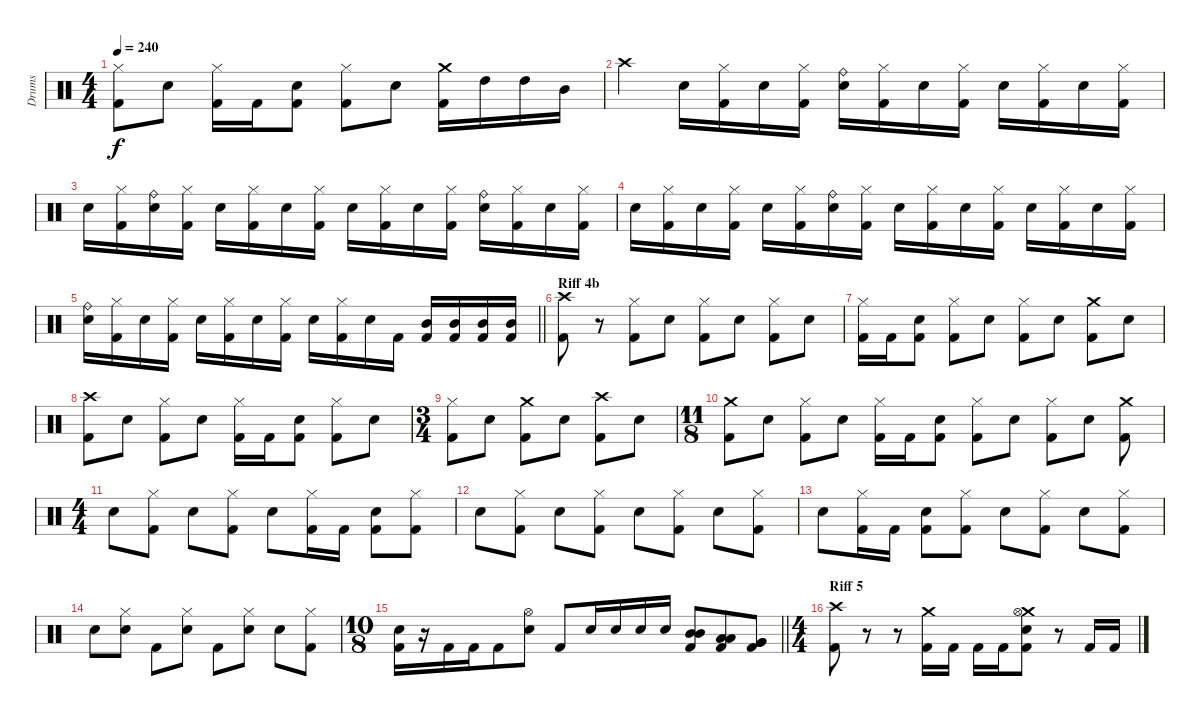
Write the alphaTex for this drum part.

\track ("Drums" "Drums") {instrument percussion}
\staff {score}
\articulation defaults
\ts (4 4)
\tempo 240
\clef neutral
\ks c
("Hi-Hat (closed)" "Kick (hit) 2").8{dy f} "Electric Snare (hit)".8 ("Hi-Hat (closed)" "Kick (hit) 2").16 "Kick (hit) 2".16 ("Electric Snare (hit)" "Kick (hit) 2").8 ("Hi-Hat (closed)" "Kick (hit) 2").8 "Electric Snare (hit)".8 ("Crash medium (hit)" "Kick (hit) 2").16 "High Tom (hit)".16 "High Tom (hit)".16 "Mid Tom (hit)".16 |
"Crash high (hit)".4 "Electric Snare (hit)".16 ("Hi-Hat (closed)" "Kick (hit) 2").16 "Electric Snare (hit)".16 ("Hi-Hat (closed)" "Kick (hit) 2").16 ("Ride (bell)" "Electric Snare (hit)").16 ("Hi-Hat (closed)" "Kick (hit) 2").16 "Electric Snare (hit)".16 ("Hi-Hat (closed)" "Kick (hit) 2").16 "Electric Snare (hit)".16 ("Hi-Hat (closed)" "Kick (hit) 2").16 "Electric Snare (hit)".16 ("Hi-Hat (closed)" "Kick (hit) 2").16 |
"Electric Snare (hit)".16 ("Hi-Hat (closed)" "Kick (hit) 2").16 ("Ride (bell)" "Electric Snare (hit)").16 ("Hi-Hat (closed)" "Kick (hit) 2").16 "Electric Snare (hit)".16 ("Hi-Hat (closed)" "Kick (hit) 2").16 "Electric Snare (hit)".16 ("Hi-Hat (closed)" "Kick (hit) 2").16 "Electric Snare (hit)".16 ("Hi-Hat (closed)" "Kick (hit) 2").16 "Electric Snare (hit)".16 ("Hi-Hat (closed)" "Kick (hit) 2").16 ("Ride (bell)" "Electric Snare (hit)").16 ("Hi-Hat (closed)" "Kick (hit) 2").16 "Electric Snare (hit)".16 ("Hi-Hat (closed)" "Kick (hit) 2").16 |
"Electric Snare (hit)".16 ("Hi-Hat (closed)" "Kick (hit) 2").16 "Electric Snare (hit)".16 ("Hi-Hat (closed)" "Kick (hit) 2").16 "Electric Snare (hit)".16 ("Hi-Hat (closed)" "Kick (hit) 2").16 ("Ride (bell)" "Electric Snare (hit)").16 ("Hi-Hat (closed)" "Kick (hit) 2").16 "Electric Snare (hit)".16 ("Hi-Hat (closed)" "Kick (hit) 2").16 "Electric Snare (hit)".16 ("Hi-Hat (closed)" "Kick (hit) 2").16 "Electric Snare (hit)".16 ("Hi-Hat (closed)" "Kick (hit) 2").16 "Electric Snare (hit)".16 ("Hi-Hat (closed)" "Kick (hit) 2").16 |
\barLineRight lightlight
("Ride (bell)" "Electric Snare (hit)").16 ("Hi-Hat (closed)" "Kick (hit) 2").16 "Electric Snare (hit)".16 ("Hi-Hat (closed)" "Kick (hit) 2").16 "Electric Snare (hit)".16 ("Hi-Hat (closed)" "Kick (hit) 2").16 "Electric Snare (hit)".16 ("Hi-Hat (closed)" "Kick (hit) 2").16 "Electric Snare (hit)".16 ("Hi-Hat (closed)" "Kick (hit) 2").16 "Electric Snare (hit)".16 "Kick (hit) 2".16 ("Mid Tom (hit)" "Kick (hit) 2").16 ("Mid Tom (hit)" "Kick (hit) 2").16 ("Mid Tom (hit)" "Kick (hit) 2").16 ("Mid Tom (hit)" "Kick (hit) 2").16 |
\section ("" "Riff 4b")
("Crash high (hit)" "Kick (hit) 2").8 r.8 ("Hi-Hat (closed)" "Kick (hit) 2").8 "Electric Snare (hit)".8 ("Hi-Hat (closed)" "Kick (hit) 2").8 "Electric Snare (hit)".8 ("Hi-Hat (closed)" "Kick (hit) 2").8 "Electric Snare (hit)".8 |
("Hi-Hat (closed)" "Kick (hit) 2").16 "Kick (hit) 2".16 ("Electric Snare (hit)" "Kick (hit) 2").8 ("Hi-Hat (closed)" "Kick (hit) 2").8 "Electric Snare (hit)".8 ("Hi-Hat (closed)" "Kick (hit) 2").8 "Electric Snare (hit)".8 ("Crash medium (hit)" "Kick (hit) 2").8 "Electric Snare (hit)".8 |
("Crash high (hit)" "Kick (hit) 2").8 "Electric Snare (hit)".8 ("Hi-Hat (closed)" "Kick (hit) 2").8 "Electric Snare (hit)".8 ("Hi-Hat (closed)" "Kick (hit) 2").16 "Kick (hit) 2".16 ("Electric Snare (hit)" "Kick (hit) 2").8 ("Hi-Hat (closed)" "Kick (hit) 2").8 "Electric Snare (hit)".8 |
\ts (3 4)
("Hi-Hat (closed)" "Kick (hit) 2").8 "Electric Snare (hit)".8 ("Crash medium (hit)" "Kick (hit) 2").8 "Electric Snare (hit)".8 ("Crash high (hit)" "Kick (hit) 2").8 "Electric Snare (hit)".8 |
\ts (11 8)
("Crash medium (hit)" "Kick (hit) 2").8 "Electric Snare (hit)".8 ("Hi-Hat (closed)" "Kick (hit) 2").8 "Electric Snare (hit)".8 ("Hi-Hat (closed)" "Kick (hit) 2").16 "Kick (hit) 2".16 ("Electric Snare (hit)" "Kick (hit) 2").8 ("Hi-Hat (closed)" "Kick (hit) 2").8 "Electric Snare (hit)".8 ("Hi-Hat (closed)" "Kick (hit) 2").8 "Electric Snare (hit)".8 ("Crash medium (hit)" "Kick (hit) 2").8 |
\ts (4 4)
"Electric Snare (hit)".8 ("Hi-Hat (closed)" "Kick (hit) 2").8 "Electric Snare (hit)".8 ("Hi-Hat (closed)" "Kick (hit) 2").8 "Electric Snare (hit)".8 ("Hi-Hat (closed)" "Kick (hit) 2").16 "Kick (hit) 2".16 ("Electric Snare (hit)" "Kick (hit) 2").8 ("Hi-Hat (closed)" "Kick (hit) 2").8 |
"Electric Snare (hit)".8 ("Hi-Hat (closed)" "Kick (hit) 2").8 "Electric Snare (hit)".8 ("Hi-Hat (closed)" "Kick (hit) 2").8 "Electric Snare (hit)".8 ("Hi-Hat (closed)" "Kick (hit) 2").8 "Electric Snare (hit)".8 ("Hi-Hat (closed)" "Kick (hit) 2").8 |
"Electric Snare (hit)".8 ("Hi-Hat (closed)" "Kick (hit) 2").16 "Kick (hit) 2".16 ("Electric Snare (hit)" "Kick (hit) 2").8 ("Hi-Hat (closed)" "Kick (hit) 2").8 "Electric Snare (hit)".8 ("Hi-Hat (closed)" "Kick (hit) 2").8 "Electric Snare (hit)".8 ("Hi-Hat (closed)" "Kick (hit) 2").8 |
"Electric Snare (hit)".8 ("Hi-Hat (closed)" "Electric Snare (hit)").8 "Kick (hit) 2".8 ("Hi-Hat (closed)" "Electric Snare (hit)").8 "Kick (hit) 2".8 ("Hi-Hat (closed)" "Electric Snare (hit)").8 "Electric Snare (hit)".8 ("Hi-Hat (closed)" "Kick (hit) 2").8 |
\ts (10 8)
\barLineRight lightlight
("Electric Snare (hit)" "Kick (hit) 2").16 r.16 "Kick (hit) 2".16 "Kick (hit) 2".16 "Kick (hit) 2".8 ("Hi-Hat (open)" "Electric Snare (hit)").8 "Kick (hit) 2".8 "Electric Snare (hit)".16 "Electric Snare (hit)".16 "Electric Snare (hit)".16 "Electric Snare (hit)".16 ("Mid Tom (hit)" "Mid Tom (hit)" "Kick (hit) 2").8 ("Low Tom (hit)" "Low Tom (hit)" "Kick (hit) 2").8 ("Very Low Tom (hit)" "Very Low Tom (hit)" "Kick (hit) 2").8 |
\ts (4 4)
\section ("" "Riff 5")
("Crash high (hit)" "Kick (hit) 2").8 r.8 r.8 ("Crash medium (hit)" "Kick (hit) 2").16 "Kick (hit) 2".16 "Kick (hit) 2".16 "Kick (hit) 2".16 ("Crash medium (hit)" "Hi-Hat (open)" "Electric Snare (hit)" "Kick (hit) 2").8 r.8 "Kick (hit) 2".16 "Kick (hit) 2".16
